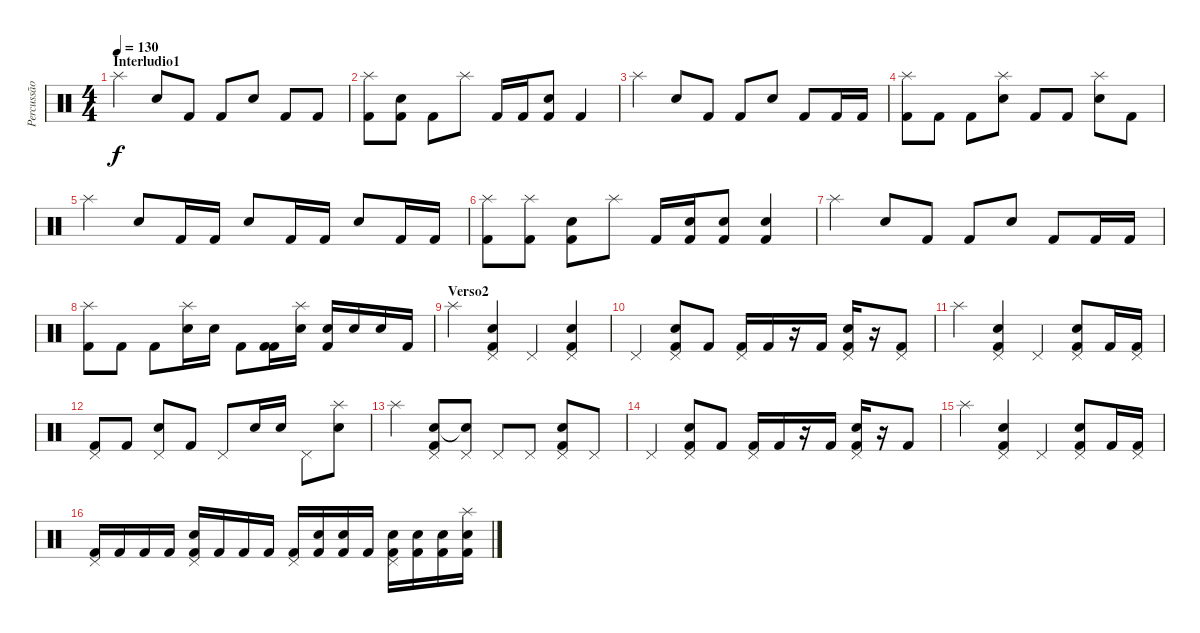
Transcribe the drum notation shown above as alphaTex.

\track ("Percussão" "Percussão") {instrument percussion}
\staff {score}
\articulation defaults
\ts (4 4)
\section ("" "Interludio1")
\tempo 130
\clef neutral
\ks c "Splash (hit)".4{dy f} "Snare (hit) 2".8 "Kick (hit) 2".8 "Kick (hit) 2".8 "Snare (hit) 2".8 "Kick (hit) 2".8 "Kick (hit) 2".8
|
("Kick (hit) 2" "Splash (hit)").8 ("Kick (hit) 2" "Snare (hit) 2").8 "Kick (hit) 2".8 "Splash (hit)".8 "Kick (hit) 2".16 "Kick (hit) 2".16 ("Kick (hit) 2" "Snare (hit) 2").8 "Kick (hit) 2".4 |
"Splash (hit)".4 "Snare (hit) 2".8 "Kick (hit) 2".8 "Kick (hit) 2".8 "Snare (hit) 2".8 "Kick (hit) 2".8 "Kick (hit) 2".16 "Kick (hit) 2".16 |
("Kick (hit) 2" "Splash (hit)").8 "Kick (hit) 2".8 "Kick (hit) 2".8 ("Snare (hit) 2" "Splash (hit)").8 "Kick (hit) 2".8 "Kick (hit) 2".8 ("Snare (hit) 2" "Splash (hit)").8 "Kick (hit) 2".8 |
"Splash (hit)".4 "Snare (hit) 2".8 "Kick (hit) 2".16 "Kick (hit) 2".16 "Snare (hit) 2".8 "Kick (hit) 2".16 "Kick (hit) 2".16 "Snare (hit) 2".8 "Kick (hit) 2".16 "Kick (hit) 2".16 |
("Kick (hit) 2" "Splash (hit)").8 ("Kick (hit) 2" "Splash (hit)").8 ("Kick (hit) 2" "Snare (hit) 2").8 "Splash (hit)".8 "Kick (hit) 2".16 ("Kick (hit) 2" "Snare (hit) 2").16 ("Kick (hit) 2" "Snare (hit) 2").8 ("Kick (hit) 2" "Snare (hit) 2").4 |
"Splash (hit)".4 "Snare (hit) 2".8 "Kick (hit) 2".8 "Kick (hit) 2".8 "Snare (hit) 2".8 "Kick (hit) 2".8 "Kick (hit) 2".16 "Kick (hit) 2".16 |
("Kick (hit) 2" "Splash (hit)").8 "Kick (hit) 2".8 "Kick (hit) 2".8 ("Snare (hit) 2" "Splash (hit)").16 "Snare (hit) 2".16 "Kick (hit) 2".8 ("Kick (hit) 2" "Kick (hit) 2").16 ("Snare (hit) 2" "Splash (hit)").16 ("Kick (hit) 2" "Snare (hit) 2").16 "Snare (hit) 2".16 "Snare (hit) 2".16 "Kick (hit) 2".16 |
\section ("" "Verso2")
"Splash (hit)".4 ("Kick (hit) 2" "Snare (hit) 2" "Pedal Hi-Hat (hit)").4 "Pedal Hi-Hat (hit)".4 ("Kick (hit) 2" "Snare (hit) 2" "Pedal Hi-Hat (hit)").4 |
"Pedal Hi-Hat (hit)".4 ("Kick (hit) 2" "Snare (hit) 2" "Pedal Hi-Hat (hit)").8 "Kick (hit) 2".8 ("Kick (hit) 2" "Pedal Hi-Hat (hit)").16 "Kick (hit) 2".16 r.16 "Kick (hit) 2".16 ("Kick (hit) 2" "Snare (hit) 2" "Pedal Hi-Hat (hit)").16 r.16 ("Kick (hit) 2" "Pedal Hi-Hat (hit)").8 |
"Splash (hit)".4 ("Kick (hit) 2" "Snare (hit) 2" "Pedal Hi-Hat (hit)").4 "Pedal Hi-Hat (hit)".4 ("Kick (hit) 2" "Snare (hit) 2" "Pedal Hi-Hat (hit)").8 "Kick (hit) 2".16 ("Kick (hit) 2" "Pedal Hi-Hat (hit)").16 |
("Kick (hit) 2" "Pedal Hi-Hat (hit)").8 "Kick (hit) 2".8 ("Snare (hit) 2" "Pedal Hi-Hat (hit)").8 "Kick (hit) 2".8 "Pedal Hi-Hat (hit)".8 "Snare (hit) 2".16 "Snare (hit) 2".16 "Pedal Hi-Hat (hit)".8 ("Snare (hit) 2" "Splash (hit)").8 |
"Splash (hit)".4 ("Kick (hit) 2" "Snare (hit) 2" "Pedal Hi-Hat (hit)").8 ("Pedal Hi-Hat (hit)" "Snare (hit)"{t}).8 "Pedal Hi-Hat (hit)".8 "Pedal Hi-Hat (hit)".8 ("Kick (hit) 2" "Snare (hit) 2" "Pedal Hi-Hat (hit)").8 "Pedal Hi-Hat (hit)".8 |
"Pedal Hi-Hat (hit)".4 ("Kick (hit) 2" "Snare (hit) 2" "Pedal Hi-Hat (hit)").8 "Kick (hit) 2".8 ("Kick (hit) 2" "Pedal Hi-Hat (hit)").16 "Kick (hit) 2".16 r.16 "Kick (hit) 2".16 ("Kick (hit) 2" "Snare (hit) 2" "Pedal Hi-Hat (hit)").16 r.16 "Kick (hit) 2".8 |
"Splash (hit)".4 ("Kick (hit) 2" "Snare (hit) 2" "Pedal Hi-Hat (hit)").4 "Pedal Hi-Hat (hit)".4 ("Kick (hit) 2" "Snare (hit) 2" "Pedal Hi-Hat (hit)").8 "Kick (hit) 2".16 ("Kick (hit) 2" "Pedal Hi-Hat (hit)").16 |
("Kick (hit) 2" "Pedal Hi-Hat (hit)").16 "Kick (hit) 2".16 "Kick (hit) 2".16 "Kick (hit) 2".16 ("Kick (hit) 2" "Snare (hit) 2" "Pedal Hi-Hat (hit)").16 "Kick (hit) 2".16 "Kick (hit) 2".16 "Kick (hit) 2".16 ("Kick (hit) 2" "Pedal Hi-Hat (hit)").16 ("Kick (hit) 2" "Snare (hit) 2").16 ("Kick (hit) 2" "Snare (hit) 2").16 "Kick (hit) 2".16 ("Kick (hit) 2" "Snare (hit) 2" "Pedal Hi-Hat (hit)").16 ("Kick (hit) 2" "Snare (hit) 2").16 ("Kick (hit) 2" "Snare (hit) 2").16 ("Kick (hit) 2" "Snare (hit) 2" "Splash (hit)").16
